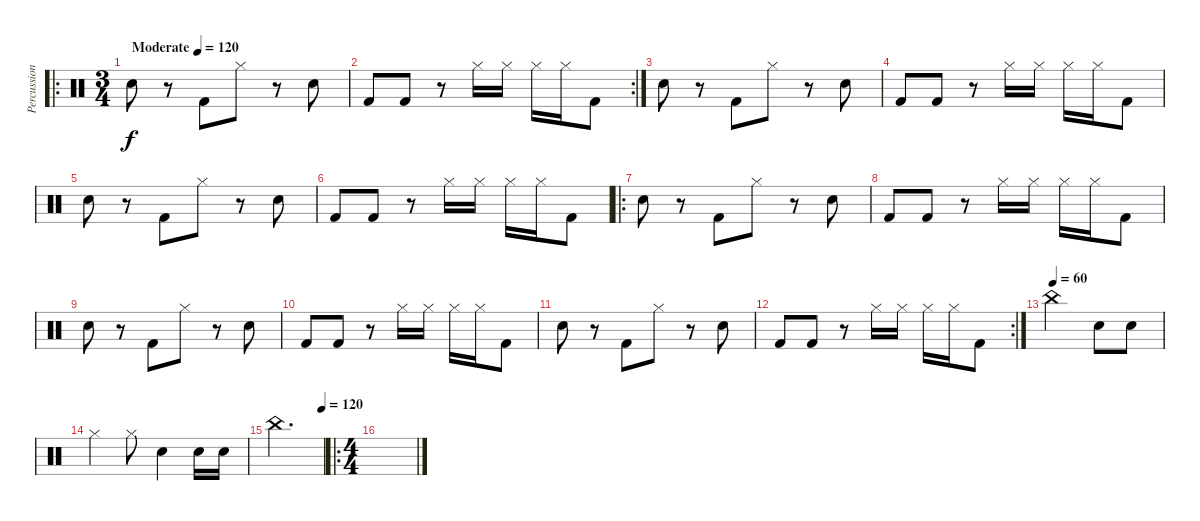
\track ("Percussion" "Percussion") {instrument percussion}
\staff {score}
\articulation defaults
\ro
\ts (3 4)
\tempo (120 "Moderate")
\clef neutral
\ks c "Snare (hit) 2".8{dy f}
r.8 "Kick (hit) 2".8 "Hi-Hat (closed)".8 r.8 "Snare (hit) 2".8 |
\rc 2 "Kick (hit) 2".8 "Kick (hit) 2".8
r.8 "Hi-Hat (closed)".16 "Hi-Hat (closed)".16 "Hi-Hat (closed)".16 "Hi-Hat (closed)".16 "Kick (hit) 2".8 |
"Snare (hit) 2".8 r.8 "Kick (hit) 2".8 "Hi-Hat (closed)".8 r.8 "Snare (hit) 2".8 |
"Kick (hit) 2".8 "Kick (hit) 2".8 r.8 "Hi-Hat (closed)".16 "Hi-Hat (closed)".16 "Hi-Hat (closed)".16 "Hi-Hat (closed)".16 "Kick (hit) 2".8 |
"Snare (hit) 2".8 r.8 "Kick (hit) 2".8 "Hi-Hat (closed)".8 r.8 "Snare (hit) 2".8 |
"Kick (hit) 2".8 "Kick (hit) 2".8 r.8 "Hi-Hat (closed)".16 "Hi-Hat (closed)".16 "Hi-Hat (closed)".16 "Hi-Hat (closed)".16 "Kick (hit) 2".8 |
\ro "Snare (hit) 2".8
r.8 "Kick (hit) 2".8 "Hi-Hat (closed)".8 r.8 "Snare (hit) 2".8 |
"Kick (hit) 2".8 "Kick (hit) 2".8 r.8 "Hi-Hat (closed)".16 "Hi-Hat (closed)".16 "Hi-Hat (closed)".16 "Hi-Hat (closed)".16 "Kick (hit) 2".8 |
"Snare (hit) 2".8 r.8 "Kick (hit) 2".8 "Hi-Hat (closed)".8 r.8 "Snare (hit) 2".8 |
"Kick (hit) 2".8 "Kick (hit) 2".8 r.8 "Hi-Hat (closed)".16 "Hi-Hat (closed)".16 "Hi-Hat (closed)".16 "Hi-Hat (closed)".16 "Kick (hit) 2".8 |
"Snare (hit) 2".8 r.8 "Kick (hit) 2".8 "Hi-Hat (closed)".8 r.8 "Snare (hit) 2".8 |
\rc 2 "Kick (hit) 2".8 "Kick (hit) 2".8
r.8 "Hi-Hat (closed)".16 "Hi-Hat (closed)".16 "Hi-Hat (closed)".16 "Hi-Hat (closed)".16 "Kick (hit) 2".8 |
\tempo (60)
"China (hit)".2 "Snare (hit) 2".8 "Snare (hit) 2".8 |
"Hi-Hat (closed)".4 "Hi-Hat (closed)".8 "Snare (hit) 2".4 "Snare (hit) 2".16 "Snare (hit) 2".16 |
\tempo (120 0.9791666666666666)
"China (hit)".2{d} |
\ro
\ts (4 4)
